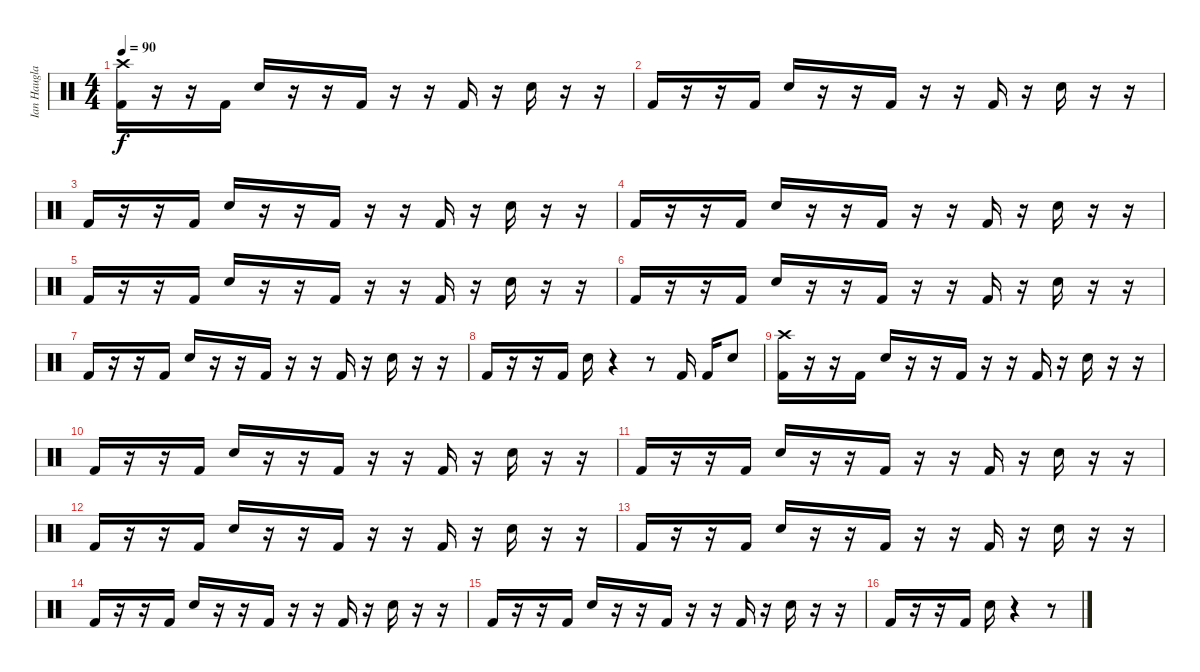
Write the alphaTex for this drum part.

\track ("Ian Haugland" "Ian Haugla") {instrument percussion}
\staff {score}
\articulation defaults
\ts (4 4)
\tempo 90
\clef neutral
\ks c
("Crash high (hit)" "Kick (hit) 2").16{dy f} r.16 r.16 "Kick (hit) 2".16 "Electric Snare (hit)".16 r.16 r.16 "Kick (hit) 2".16 r.16 r.16 "Kick (hit) 2".16 r.16 "Electric Snare (hit)".16 r.16 r.16 |
"Kick (hit) 2".16 r.16 r.16 "Kick (hit) 2".16 "Electric Snare (hit)".16 r.16 r.16 "Kick (hit) 2".16 r.16 r.16 "Kick (hit) 2".16 r.16 "Electric Snare (hit)".16 r.16 r.16 |
"Kick (hit) 2".16 r.16 r.16 "Kick (hit) 2".16 "Electric Snare (hit)".16 r.16 r.16 "Kick (hit) 2".16 r.16 r.16 "Kick (hit) 2".16 r.16 "Electric Snare (hit)".16 r.16 r.16 |
"Kick (hit) 2".16 r.16 r.16 "Kick (hit) 2".16 "Electric Snare (hit)".16 r.16 r.16 "Kick (hit) 2".16 r.16 r.16 "Kick (hit) 2".16 r.16 "Electric Snare (hit)".16 r.16 r.16 |
"Kick (hit) 2".16 r.16 r.16 "Kick (hit) 2".16 "Electric Snare (hit)".16 r.16 r.16 "Kick (hit) 2".16 r.16 r.16 "Kick (hit) 2".16 r.16 "Electric Snare (hit)".16 r.16 r.16 |
"Kick (hit) 2".16 r.16 r.16 "Kick (hit) 2".16 "Electric Snare (hit)".16 r.16 r.16 "Kick (hit) 2".16 r.16 r.16 "Kick (hit) 2".16 r.16 "Electric Snare (hit)".16 r.16 r.16 |
"Kick (hit) 2".16 r.16 r.16 "Kick (hit) 2".16 "Electric Snare (hit)".16 r.16 r.16 "Kick (hit) 2".16 r.16 r.16 "Kick (hit) 2".16 r.16 "Electric Snare (hit)".16 r.16 r.16 |
"Kick (hit) 2".16 r.16 r.16 "Kick (hit) 2".16 "Electric Snare (hit)".16 r.4 r.8 "Kick (hit) 2".16 "Kick (hit) 2".16 "Electric Snare (hit)".8 |
("Crash high (hit)" "Kick (hit) 2").16 r.16 r.16 "Kick (hit) 2".16 "Electric Snare (hit)".16 r.16 r.16 "Kick (hit) 2".16 r.16 r.16 "Kick (hit) 2".16 r.16 "Electric Snare (hit)".16 r.16 r.16 |
"Kick (hit) 2".16 r.16 r.16 "Kick (hit) 2".16 "Electric Snare (hit)".16 r.16 r.16 "Kick (hit) 2".16 r.16 r.16 "Kick (hit) 2".16 r.16 "Electric Snare (hit)".16 r.16 r.16 |
"Kick (hit) 2".16 r.16 r.16 "Kick (hit) 2".16 "Electric Snare (hit)".16 r.16 r.16 "Kick (hit) 2".16 r.16 r.16 "Kick (hit) 2".16 r.16 "Electric Snare (hit)".16 r.16 r.16 |
"Kick (hit) 2".16 r.16 r.16 "Kick (hit) 2".16 "Electric Snare (hit)".16 r.16 r.16 "Kick (hit) 2".16 r.16 r.16 "Kick (hit) 2".16 r.16 "Electric Snare (hit)".16 r.16 r.16 |
"Kick (hit) 2".16 r.16 r.16 "Kick (hit) 2".16 "Electric Snare (hit)".16 r.16 r.16 "Kick (hit) 2".16 r.16 r.16 "Kick (hit) 2".16 r.16 "Electric Snare (hit)".16 r.16 r.16 |
"Kick (hit) 2".16 r.16 r.16 "Kick (hit) 2".16 "Electric Snare (hit)".16 r.16 r.16 "Kick (hit) 2".16 r.16 r.16 "Kick (hit) 2".16 r.16 "Electric Snare (hit)".16 r.16 r.16 |
"Kick (hit) 2".16 r.16 r.16 "Kick (hit) 2".16 "Electric Snare (hit)".16 r.16 r.16 "Kick (hit) 2".16 r.16 r.16 "Kick (hit) 2".16 r.16 "Electric Snare (hit)".16 r.16 r.16 |
"Kick (hit) 2".16 r.16 r.16 "Kick (hit) 2".16 "Electric Snare (hit)".16 r.4 r.8
